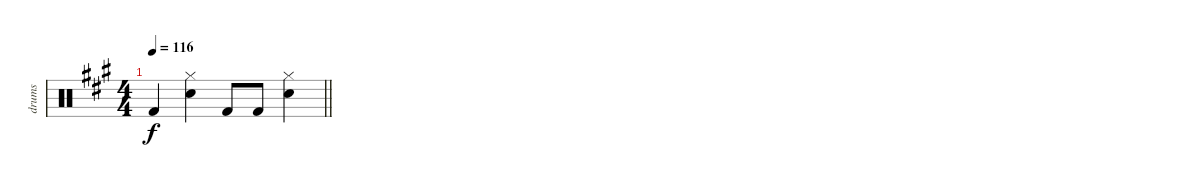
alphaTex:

\track ("drums" "drums") {instrument percussion}
\staff {score}
\articulation defaults
\ts (4 4)
\tempo 116
\clef neutral
\barLineRight lightlight
\ks a "Kick (hit) 2".4{dy f}
("Hi-Hat (closed)" "Electric Snare (hit)").4 "Kick (hit) 2".8 "Kick (hit) 2".8 ("Hi-Hat (closed)" "Electric Snare (hit)").4
